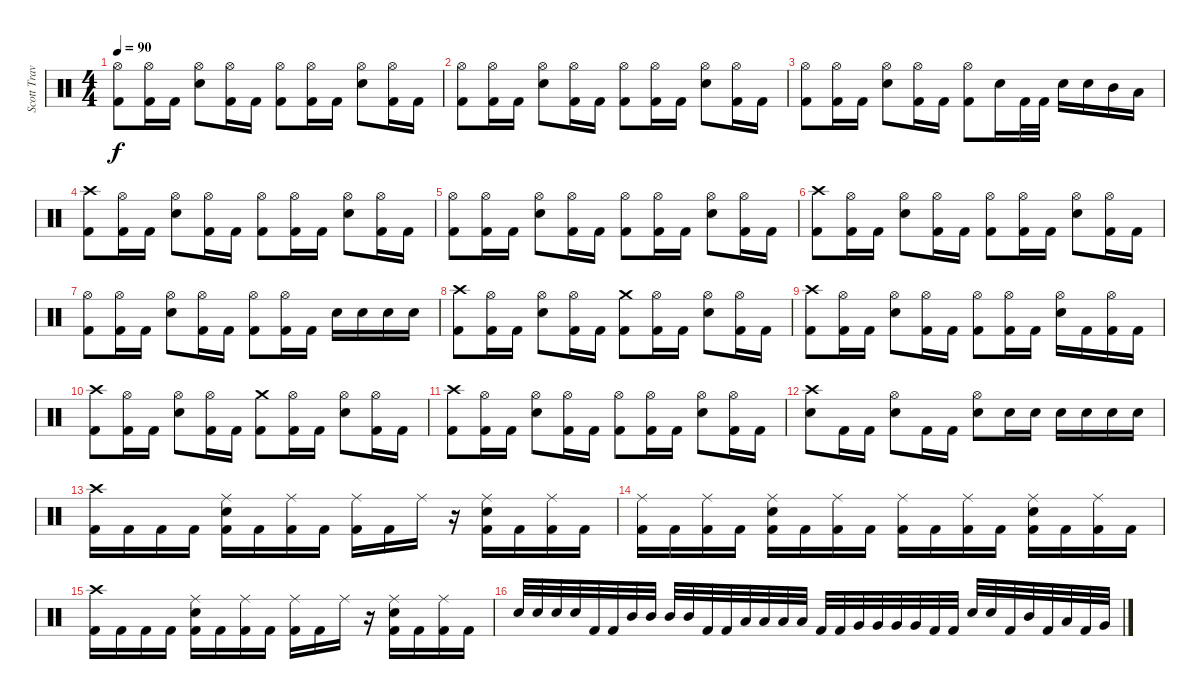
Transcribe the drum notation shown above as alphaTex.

\track ("Scott Travis" "Scott Trav") {instrument percussion}
\staff {score}
\articulation defaults
\ts (4 4)
\tempo 90
\clef neutral
\ks c
("Kick (hit) 2" "Hi-Hat (open)").8{dy f} ("Kick (hit) 2" "Hi-Hat (open)").16 "Kick (hit) 2".16 ("Electric Snare (hit)" "Hi-Hat (open)").8 ("Kick (hit) 2" "Hi-Hat (open)").16 "Kick (hit) 2".16 ("Kick (hit) 2" "Hi-Hat (open)").8 ("Kick (hit) 2" "Hi-Hat (open)").16 "Kick (hit) 2".16 ("Electric Snare (hit)" "Hi-Hat (open)").8 ("Kick (hit) 2" "Hi-Hat (open)").16 "Kick (hit) 2".16 |
("Kick (hit) 2" "Hi-Hat (open)").8 ("Kick (hit) 2" "Hi-Hat (open)").16 "Kick (hit) 2".16 ("Electric Snare (hit)" "Hi-Hat (open)").8 ("Kick (hit) 2" "Hi-Hat (open)").16 "Kick (hit) 2".16 ("Kick (hit) 2" "Hi-Hat (open)").8 ("Kick (hit) 2" "Hi-Hat (open)").16 "Kick (hit) 2".16 ("Electric Snare (hit)" "Hi-Hat (open)").8 ("Kick (hit) 2" "Hi-Hat (open)").16 "Kick (hit) 2".16 |
("Kick (hit) 2" "Hi-Hat (open)").8 ("Kick (hit) 2" "Hi-Hat (open)").16 "Kick (hit) 2".16 ("Electric Snare (hit)" "Hi-Hat (open)").8 ("Kick (hit) 2" "Hi-Hat (open)").16 "Kick (hit) 2".16 ("Kick (hit) 2" "Hi-Hat (open)").8 "Electric Snare (hit)".16 "Kick (hit) 2".32 "Kick (hit) 2".32 "Electric Snare (hit)".16 "Electric Snare (hit)".16 "Mid Tom (hit)".16 "Low Tom (hit)".16 |
("Kick (hit) 2" "Crash high (hit)").8 ("Kick (hit) 2" "Hi-Hat (open)").16 "Kick (hit) 2".16 ("Electric Snare (hit)" "Hi-Hat (open)").8 ("Kick (hit) 2" "Hi-Hat (open)").16 "Kick (hit) 2".16 ("Kick (hit) 2" "Hi-Hat (open)").8 ("Kick (hit) 2" "Hi-Hat (open)").16 "Kick (hit) 2".16 ("Electric Snare (hit)" "Hi-Hat (open)").8 ("Kick (hit) 2" "Hi-Hat (open)").16 "Kick (hit) 2".16 |
("Kick (hit) 2" "Hi-Hat (open)").8 ("Kick (hit) 2" "Hi-Hat (open)").16 "Kick (hit) 2".16 ("Electric Snare (hit)" "Hi-Hat (open)").8 ("Kick (hit) 2" "Hi-Hat (open)").16 "Kick (hit) 2".16 ("Kick (hit) 2" "Hi-Hat (open)").8 ("Kick (hit) 2" "Hi-Hat (open)").16 "Kick (hit) 2".16 ("Electric Snare (hit)" "Hi-Hat (open)").8 ("Kick (hit) 2" "Hi-Hat (open)").16 "Kick (hit) 2".16 |
("Kick (hit) 2" "Crash high (hit)").8 ("Kick (hit) 2" "Hi-Hat (open)").16 "Kick (hit) 2".16 ("Electric Snare (hit)" "Hi-Hat (open)").8 ("Kick (hit) 2" "Hi-Hat (open)").16 "Kick (hit) 2".16 ("Kick (hit) 2" "Hi-Hat (open)").8 ("Kick (hit) 2" "Hi-Hat (open)").16 "Kick (hit) 2".16 ("Electric Snare (hit)" "Hi-Hat (open)").8 ("Kick (hit) 2" "Hi-Hat (open)").16 "Kick (hit) 2".16 |
("Kick (hit) 2" "Hi-Hat (open)").8 ("Kick (hit) 2" "Hi-Hat (open)").16 "Kick (hit) 2".16 ("Electric Snare (hit)" "Hi-Hat (open)").8 ("Kick (hit) 2" "Hi-Hat (open)").16 "Kick (hit) 2".16 ("Kick (hit) 2" "Hi-Hat (open)").8 ("Kick (hit) 2" "Hi-Hat (open)").16 "Kick (hit) 2".16 "Electric Snare (hit)".16 "Electric Snare (hit)".16 "Electric Snare (hit)".16 "Electric Snare (hit)".16 |
("Kick (hit) 2" "Crash high (hit)").8 ("Kick (hit) 2" "Hi-Hat (open)").16 "Kick (hit) 2".16 ("Electric Snare (hit)" "Hi-Hat (open)").8 ("Kick (hit) 2" "Hi-Hat (open)").16 "Kick (hit) 2".16 ("Kick (hit) 2" "Crash medium (hit)").8 ("Kick (hit) 2" "Hi-Hat (open)").16 "Kick (hit) 2".16 ("Electric Snare (hit)" "Hi-Hat (open)").8 ("Kick (hit) 2" "Hi-Hat (open)").16 "Kick (hit) 2".16 |
("Kick (hit) 2" "Crash high (hit)").8 ("Kick (hit) 2" "Hi-Hat (open)").16 "Kick (hit) 2".16 ("Electric Snare (hit)" "Hi-Hat (open)").8 ("Kick (hit) 2" "Hi-Hat (open)").16 "Kick (hit) 2".16 ("Kick (hit) 2" "Hi-Hat (open)").8 ("Kick (hit) 2" "Hi-Hat (open)").16 "Kick (hit) 2".16 ("Electric Snare (hit)" "Hi-Hat (open)").16 "Kick (hit) 2".16 ("Kick (hit) 2" "Hi-Hat (open)").16 "Kick (hit) 2".16 |
("Kick (hit) 2" "Crash high (hit)").8 ("Kick (hit) 2" "Hi-Hat (open)").16 "Kick (hit) 2".16 ("Electric Snare (hit)" "Hi-Hat (open)").8 ("Kick (hit) 2" "Hi-Hat (open)").16 "Kick (hit) 2".16 ("Kick (hit) 2" "Crash medium (hit)").8 ("Kick (hit) 2" "Hi-Hat (open)").16 "Kick (hit) 2".16 ("Electric Snare (hit)" "Hi-Hat (open)").8 ("Kick (hit) 2" "Hi-Hat (open)").16 "Kick (hit) 2".16 |
("Kick (hit) 2" "Crash high (hit)").8 ("Kick (hit) 2" "Hi-Hat (open)").16 "Kick (hit) 2".16 ("Electric Snare (hit)" "Hi-Hat (open)").8 ("Kick (hit) 2" "Hi-Hat (open)").16 "Kick (hit) 2".16 ("Kick (hit) 2" "Hi-Hat (open)").8 ("Kick (hit) 2" "Hi-Hat (open)").16 "Kick (hit) 2".16 ("Electric Snare (hit)" "Hi-Hat (open)").8 ("Kick (hit) 2" "Hi-Hat (open)").16 "Kick (hit) 2".16 |
("Electric Snare (hit)" "Crash high (hit)").8 "Kick (hit) 2".16 "Kick (hit) 2".16 ("Electric Snare (hit)" "Hi-Hat (open)").8 "Kick (hit) 2".16 "Kick (hit) 2".16 ("Electric Snare (hit)" "Hi-Hat (open)").8 "Electric Snare (hit)".16 "Electric Snare (hit)".16 "Electric Snare (hit)".16 "Electric Snare (hit)".16 "Electric Snare (hit)".16 "Electric Snare (hit)".16 |
("Kick (hit) 2" "Crash high (hit)").16 "Kick (hit) 2".16 "Kick (hit) 2".16 "Kick (hit) 2".16 ("Kick (hit) 2" "Ride (middle)" "Electric Snare (hit)").16 "Kick (hit) 2".16 ("Kick (hit) 2" "Ride (middle)").16 "Kick (hit) 2".16 ("Kick (hit) 2" "Ride (middle)").16 "Kick (hit) 2".16 "Ride (middle)".16 r.16 ("Kick (hit) 2" "Electric Snare (hit)" "Ride (middle)").16 "Kick (hit) 2".16 ("Kick (hit) 2" "Ride (middle)").16 "Kick (hit) 2".16 |
("Kick (hit) 2" "Ride (middle)").16 "Kick (hit) 2".16 ("Kick (hit) 2" "Ride (middle)").16 "Kick (hit) 2".16 ("Kick (hit) 2" "Ride (middle)" "Electric Snare (hit)").16 "Kick (hit) 2".16 ("Kick (hit) 2" "Ride (middle)").16 "Kick (hit) 2".16 ("Kick (hit) 2" "Ride (middle)").16 "Kick (hit) 2".16 ("Kick (hit) 2" "Ride (middle)").16 "Kick (hit) 2".16 ("Kick (hit) 2" "Ride (middle)" "Electric Snare (hit)").16 "Kick (hit) 2".16 ("Kick (hit) 2" "Ride (middle)").16 "Kick (hit) 2".16 |
("Kick (hit) 2" "Crash high (hit)").16 "Kick (hit) 2".16 "Kick (hit) 2".16 "Kick (hit) 2".16 ("Kick (hit) 2" "Ride (middle)" "Electric Snare (hit)").16 "Kick (hit) 2".16 ("Kick (hit) 2" "Ride (middle)").16 "Kick (hit) 2".16 ("Kick (hit) 2" "Ride (middle)").16 "Kick (hit) 2".16 "Ride (middle)".16 r.16 ("Kick (hit) 2" "Electric Snare (hit)" "Ride (middle)").16 "Kick (hit) 2".16 ("Kick (hit) 2" "Ride (middle)").16 "Kick (hit) 2".16 |
"Electric Snare (hit)".32 "Electric Snare (hit)".32 "Electric Snare (hit)".32 "Electric Snare (hit)".32 "Kick (hit) 2".32 "Kick (hit) 2".32 "Mid Tom (hit)".32 "Mid Tom (hit)".32 "Mid Tom (hit)".32 "Mid Tom (hit)".32 "Kick (hit) 2".32 "Kick (hit) 2".32 "Low Tom (hit)".32 "Low Tom (hit)".32 "Low Tom (hit)".32 "Low Tom (hit)".32 "Kick (hit) 2".32 "Kick (hit) 2".32 "Very Low Tom (hit)".32 "Very Low Tom (hit)".32 "Very Low Tom (hit)".32 "Very Low Tom (hit)".32 "Kick (hit) 2".32 "Kick (hit) 2".32 "Electric Snare (hit)".32 "Electric Snare (hit)".32 "Kick (hit) 2".32 "Mid Tom (hit)".32 "Kick (hit) 2".32 "Low Tom (hit)".32 "Kick (hit) 2".32 "Very Low Tom (hit)".32
